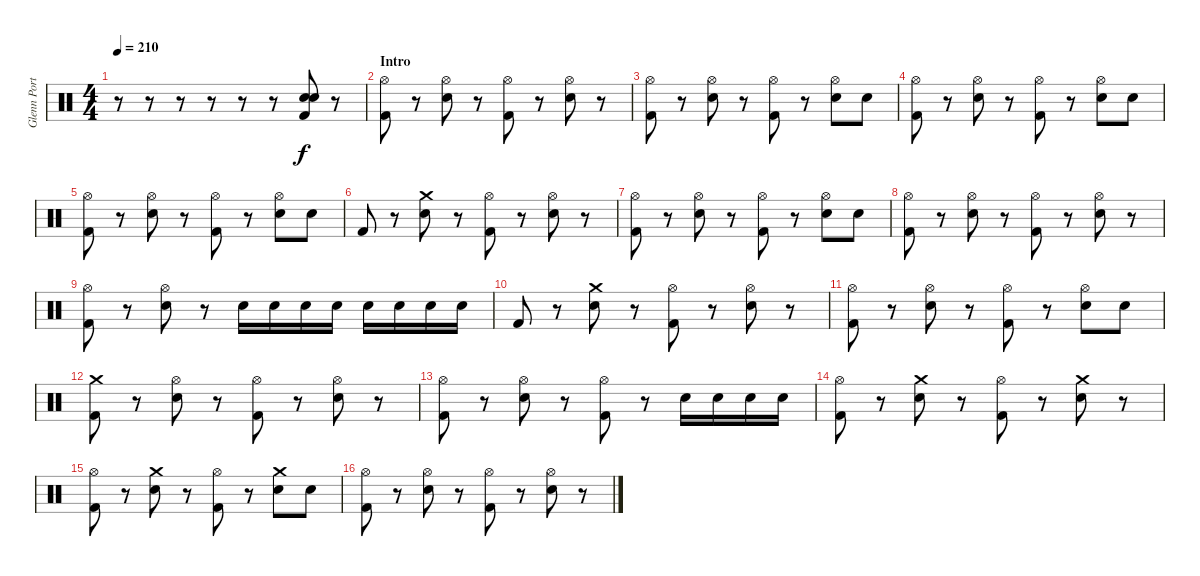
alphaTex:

\track ("Glenn Porter - Drums" "Glenn Port") {instrument percussion}
\staff {score}
\articulation defaults
\ts (4 4)
\tempo 210
\clef neutral
\ks c
r.8{dy f} r.8 r.8 r.8 r.8 r.8 ("Electric Snare (hit)" "Electric Snare (hit)" "Kick (hit) 2").8 r.8 |
\section ("" "Intro")
("Hi-Hat (open)" "Kick (hit) 2").8 r.8 ("Hi-Hat (open)" "Electric Snare (hit)").8 r.8 ("Hi-Hat (open)" "Kick (hit) 2").8 r.8 ("Hi-Hat (open)" "Electric Snare (hit)").8 r.8 |
("Hi-Hat (open)" "Kick (hit) 2").8 r.8 ("Hi-Hat (open)" "Electric Snare (hit)").8 r.8 ("Hi-Hat (open)" "Kick (hit) 2").8 r.8 ("Hi-Hat (open)" "Electric Snare (hit)").8 "Electric Snare (hit)".8 |
("Hi-Hat (open)" "Kick (hit) 2").8 r.8 ("Hi-Hat (open)" "Electric Snare (hit)").8 r.8 ("Hi-Hat (open)" "Kick (hit) 2").8 r.8 ("Hi-Hat (open)" "Electric Snare (hit)").8 "Electric Snare (hit)".8 |
("Hi-Hat (open)" "Kick (hit) 2").8 r.8 ("Hi-Hat (open)" "Electric Snare (hit)").8 r.8 ("Hi-Hat (open)" "Kick (hit) 2").8 r.8 ("Hi-Hat (open)" "Electric Snare (hit)").8 "Electric Snare (hit)".8 |
"Kick (hit) 2".8 r.8 ("Crash medium (hit)" "Electric Snare (hit)").8 r.8 ("Hi-Hat (open)" "Kick (hit) 2").8 r.8 ("Hi-Hat (open)" "Electric Snare (hit)").8 r.8 |
("Hi-Hat (open)" "Kick (hit) 2").8 r.8 ("Hi-Hat (open)" "Electric Snare (hit)").8 r.8 ("Hi-Hat (open)" "Kick (hit) 2").8 r.8 ("Hi-Hat (open)" "Electric Snare (hit)").8 "Electric Snare (hit)".8 |
("Hi-Hat (open)" "Kick (hit) 2").8 r.8 ("Hi-Hat (open)" "Electric Snare (hit)").8 r.8 ("Hi-Hat (open)" "Kick (hit) 2").8 r.8 ("Hi-Hat (open)" "Electric Snare (hit)").8 r.8 |
("Hi-Hat (open)" "Kick (hit) 2").8 r.8 ("Hi-Hat (open)" "Electric Snare (hit)").8 r.8 "Electric Snare (hit)".16 "Electric Snare (hit)".16 "Electric Snare (hit)".16 "Electric Snare (hit)".16 "Electric Snare (hit)".16 "Electric Snare (hit)".16 "Electric Snare (hit)".16 "Electric Snare (hit)".16 |
"Kick (hit) 2".8 r.8 ("Crash medium (hit)" "Electric Snare (hit)").8 r.8 ("Hi-Hat (open)" "Kick (hit) 2").8 r.8 ("Hi-Hat (open)" "Electric Snare (hit)").8 r.8 |
("Hi-Hat (open)" "Kick (hit) 2").8 r.8 ("Hi-Hat (open)" "Electric Snare (hit)").8 r.8 ("Hi-Hat (open)" "Kick (hit) 2").8 r.8 ("Hi-Hat (open)" "Electric Snare (hit)").8 "Electric Snare (hit)".8 |
("Crash medium (hit)" "Kick (hit) 2").8 r.8 ("Hi-Hat (open)" "Electric Snare (hit)").8 r.8 ("Hi-Hat (open)" "Kick (hit) 2").8 r.8 ("Hi-Hat (open)" "Electric Snare (hit)").8 r.8 |
("Hi-Hat (open)" "Kick (hit) 2").8 r.8 ("Hi-Hat (open)" "Electric Snare (hit)").8 r.8 ("Hi-Hat (open)" "Kick (hit) 2").8 r.8 "Electric Snare (hit)".16 "Electric Snare (hit)".16 "Electric Snare (hit)".16 "Electric Snare (hit)".16 |
("Hi-Hat (open)" "Kick (hit) 2").8 r.8 ("Crash medium (hit)" "Electric Snare (hit)").8 r.8 ("Hi-Hat (open)" "Kick (hit) 2").8 r.8 ("Crash medium (hit)" "Electric Snare (hit)").8 r.8 |
("Hi-Hat (open)" "Kick (hit) 2").8 r.8 ("Crash medium (hit)" "Electric Snare (hit)").8 r.8 ("Hi-Hat (open)" "Kick (hit) 2").8 r.8 ("Crash medium (hit)" "Electric Snare (hit)").8 "Electric Snare (hit)".8 |
("Hi-Hat (open)" "Kick (hit) 2").8 r.8 ("Hi-Hat (open)" "Electric Snare (hit)").8 r.8 ("Hi-Hat (open)" "Kick (hit) 2").8 r.8 ("Hi-Hat (open)" "Electric Snare (hit)").8 r.8
